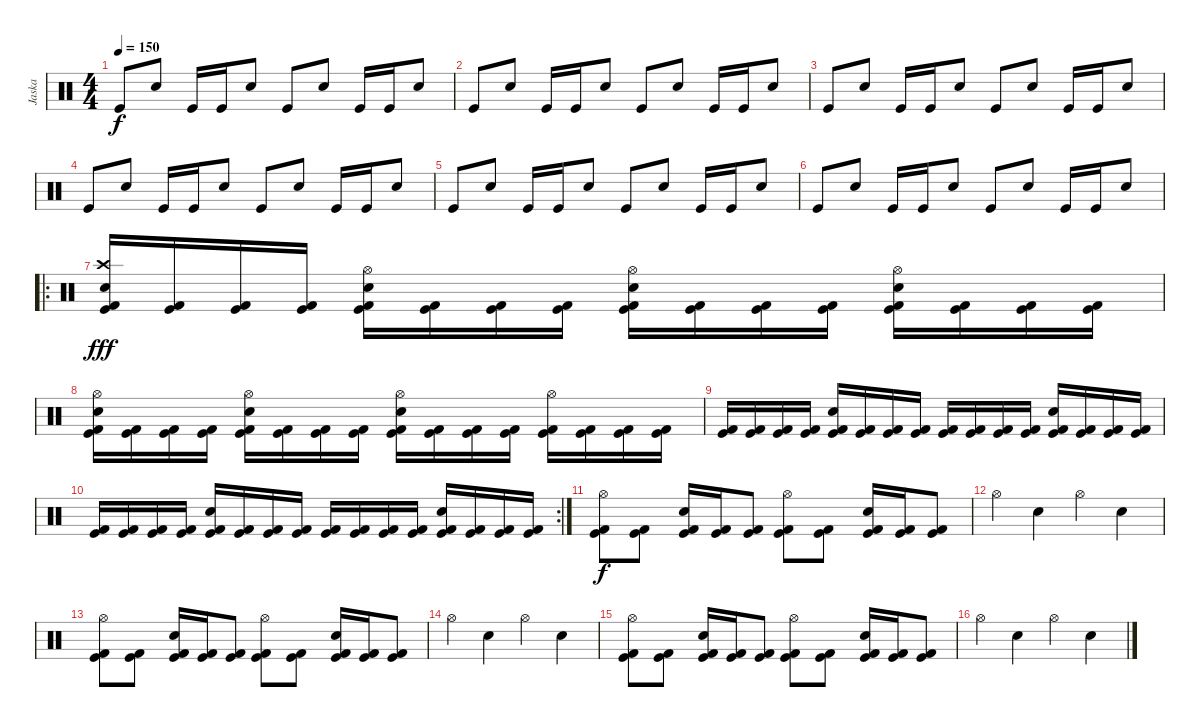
\track ("Jaska" "Jaska") {instrument percussion}
\staff {score}
\articulation defaults
\ts (4 4)
\tempo 150
\clef neutral
\ks c "Kick (hit)".8{dy f} "Electric Snare (hit)".8 "Kick (hit)".16 "Kick (hit)".16 "Electric Snare (hit)".8 "Kick (hit)".8 "Electric Snare (hit)".8 "Kick (hit)".16 "Kick (hit)".16 "Electric Snare (hit)".8
|
"Kick (hit)".8 "Electric Snare (hit)".8 "Kick (hit)".16 "Kick (hit)".16 "Electric Snare (hit)".8 "Kick (hit)".8 "Electric Snare (hit)".8 "Kick (hit)".16 "Kick (hit)".16 "Electric Snare (hit)".8 |
"Kick (hit)".8 "Electric Snare (hit)".8 "Kick (hit)".16 "Kick (hit)".16 "Electric Snare (hit)".8 "Kick (hit)".8 "Electric Snare (hit)".8 "Kick (hit)".16 "Kick (hit)".16 "Electric Snare (hit)".8 |
"Kick (hit)".8 "Electric Snare (hit)".8 "Kick (hit)".16 "Kick (hit)".16 "Electric Snare (hit)".8 "Kick (hit)".8 "Electric Snare (hit)".8 "Kick (hit)".16 "Kick (hit)".16 "Electric Snare (hit)".8 |
"Kick (hit)".8 "Electric Snare (hit)".8 "Kick (hit)".16 "Kick (hit)".16 "Electric Snare (hit)".8 "Kick (hit)".8 "Electric Snare (hit)".8 "Kick (hit)".16 "Kick (hit)".16 "Electric Snare (hit)".8 |
"Kick (hit)".8 "Electric Snare (hit)".8 "Kick (hit)".16 "Kick (hit)".16 "Electric Snare (hit)".8 "Kick (hit)".8 "Electric Snare (hit)".8 "Kick (hit)".16 "Kick (hit)".16 "Electric Snare (hit)".8 |
\ro
("Crash high (hit)" "Snare (hit) 2" "Kick (hit)" "Kick (hit) 2").16{dy fff} ("Kick (hit)" "Kick (hit) 2").16 ("Kick (hit)" "Kick (hit) 2").16 ("Kick (hit)" "Kick (hit) 2").16 ("Hi-Hat (open)" "Snare (hit) 2" "Kick (hit)" "Kick (hit) 2").16 ("Kick (hit)" "Kick (hit) 2").16 ("Kick (hit)" "Kick (hit) 2").16 ("Kick (hit)" "Kick (hit) 2").16 ("Hi-Hat (open)" "Snare (hit) 2" "Kick (hit)" "Kick (hit) 2").16 ("Kick (hit)" "Kick (hit) 2").16 ("Kick (hit)" "Kick (hit) 2").16 ("Kick (hit)" "Kick (hit) 2").16 ("Hi-Hat (open)" "Snare (hit) 2" "Kick (hit)" "Kick (hit) 2").16 ("Kick (hit)" "Kick (hit) 2").16 ("Kick (hit)" "Kick (hit) 2").16 ("Kick (hit)" "Kick (hit) 2").16 |
("Hi-Hat (open)" "Snare (hit) 2" "Kick (hit)" "Kick (hit) 2").16 ("Kick (hit)" "Kick (hit) 2").16 ("Kick (hit)" "Kick (hit) 2").16 ("Kick (hit)" "Kick (hit) 2").16 ("Hi-Hat (open)" "Snare (hit) 2" "Kick (hit)" "Kick (hit) 2").16 ("Kick (hit)" "Kick (hit) 2").16 ("Kick (hit)" "Kick (hit) 2").16 ("Kick (hit)" "Kick (hit) 2").16 ("Hi-Hat (open)" "Snare (hit) 2" "Kick (hit)" "Kick (hit) 2").16 ("Kick (hit)" "Kick (hit) 2").16 ("Kick (hit)" "Kick (hit) 2").16 ("Kick (hit)" "Kick (hit) 2").16 ("Hi-Hat (open)" "Kick (hit)" "Kick (hit) 2").16 ("Kick (hit)" "Kick (hit) 2").16 ("Kick (hit)" "Kick (hit) 2").16 ("Kick (hit)" "Kick (hit) 2").16 |
("Kick (hit)" "Kick (hit) 2").16 ("Kick (hit)" "Kick (hit) 2").16 ("Kick (hit)" "Kick (hit) 2").16 ("Kick (hit)" "Kick (hit) 2").16 ("Snare (hit) 2" "Kick (hit)" "Kick (hit) 2").16 ("Kick (hit)" "Kick (hit) 2").16 ("Kick (hit)" "Kick (hit) 2").16 ("Kick (hit)" "Kick (hit) 2").16 ("Kick (hit)" "Kick (hit) 2").16 ("Kick (hit)" "Kick (hit) 2").16 ("Kick (hit)" "Kick (hit) 2").16 ("Kick (hit)" "Kick (hit) 2").16 ("Snare (hit) 2" "Kick (hit)" "Kick (hit) 2").16 ("Kick (hit)" "Kick (hit) 2").16 ("Kick (hit)" "Kick (hit) 2").16 ("Kick (hit)" "Kick (hit) 2").16 |
\rc 2
("Kick (hit)" "Kick (hit) 2").16 ("Kick (hit)" "Kick (hit) 2").16 ("Kick (hit)" "Kick (hit) 2").16 ("Kick (hit)" "Kick (hit) 2").16 ("Snare (hit) 2" "Kick (hit)" "Kick (hit) 2").16 ("Kick (hit)" "Kick (hit) 2").16 ("Kick (hit)" "Kick (hit) 2").16 ("Kick (hit)" "Kick (hit) 2").16 ("Kick (hit)" "Kick (hit) 2").16 ("Kick (hit)" "Kick (hit) 2").16 ("Kick (hit)" "Kick (hit) 2").16 ("Kick (hit)" "Kick (hit) 2").16 ("Snare (hit) 2" "Kick (hit)" "Kick (hit) 2").16 ("Kick (hit)" "Kick (hit) 2").16 ("Kick (hit)" "Kick (hit) 2").16 ("Kick (hit)" "Kick (hit) 2").16 |
("Hi-Hat (open)" "Kick (hit)" "Kick (hit) 2").8{dy f} ("Kick (hit)" "Kick (hit) 2").8 ("Electric Snare (hit)" "Kick (hit)" "Kick (hit) 2").16 ("Kick (hit)" "Kick (hit) 2").16 ("Kick (hit)" "Kick (hit) 2").8 ("Hi-Hat (open)" "Kick (hit)" "Kick (hit) 2").8 ("Kick (hit)" "Kick (hit) 2").8 ("Electric Snare (hit)" "Kick (hit)" "Kick (hit) 2").16 ("Kick (hit)" "Kick (hit) 2").16 ("Kick (hit)" "Kick (hit) 2").8 |
"Hi-Hat (open)".4 "Electric Snare (hit)".4 "Hi-Hat (open)".4 "Electric Snare (hit)".4 |
("Hi-Hat (open)" "Kick (hit)" "Kick (hit) 2").8 ("Kick (hit)" "Kick (hit) 2").8 ("Electric Snare (hit)" "Kick (hit)" "Kick (hit) 2").16 ("Kick (hit)" "Kick (hit) 2").16 ("Kick (hit)" "Kick (hit) 2").8 ("Hi-Hat (open)" "Kick (hit)" "Kick (hit) 2").8 ("Kick (hit)" "Kick (hit) 2").8 ("Electric Snare (hit)" "Kick (hit)" "Kick (hit) 2").16 ("Kick (hit)" "Kick (hit) 2").16 ("Kick (hit)" "Kick (hit) 2").8 |
"Hi-Hat (open)".4 "Electric Snare (hit)".4 "Hi-Hat (open)".4 "Electric Snare (hit)".4 |
("Hi-Hat (open)" "Kick (hit)" "Kick (hit) 2").8 ("Kick (hit)" "Kick (hit) 2").8 ("Electric Snare (hit)" "Kick (hit)" "Kick (hit) 2").16 ("Kick (hit)" "Kick (hit) 2").16 ("Kick (hit)" "Kick (hit) 2").8 ("Hi-Hat (open)" "Kick (hit)" "Kick (hit) 2").8 ("Kick (hit)" "Kick (hit) 2").8 ("Electric Snare (hit)" "Kick (hit)" "Kick (hit) 2").16 ("Kick (hit)" "Kick (hit) 2").16 ("Kick (hit)" "Kick (hit) 2").8 |
"Hi-Hat (open)".4 "Electric Snare (hit)".4 "Hi-Hat (open)".4 "Electric Snare (hit)".4
